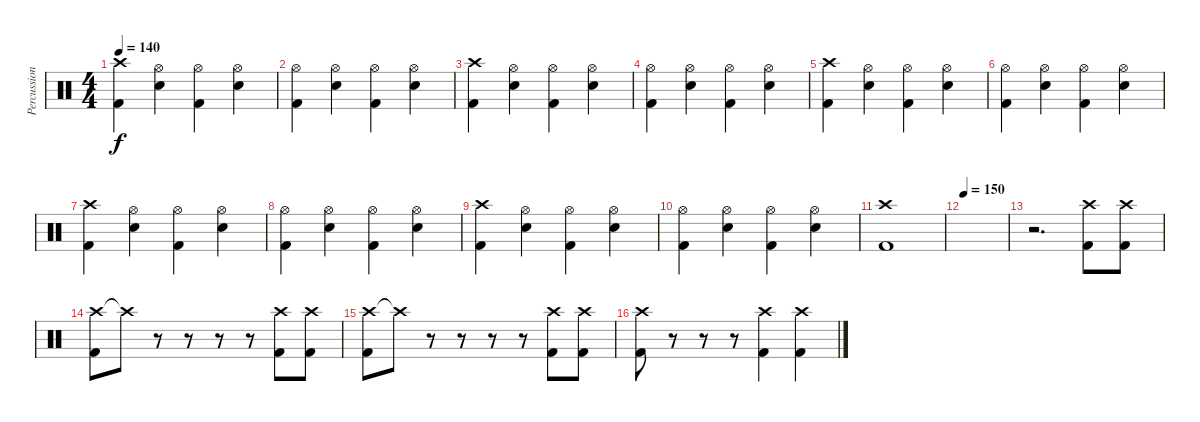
\track ("Percussion" "Percussion") {instrument percussion}
\staff {score}
\articulation defaults
\ts (4 4)
\tempo 140
\clef neutral
\ks c
("Crash high (hit)" "Kick (hit) 2").4{dy f} ("Hi-Hat (open)" "Snare (hit) 2").4 ("Hi-Hat (open)" "Kick (hit) 2").4 ("Hi-Hat (open)" "Snare (hit) 2").4 |
("Hi-Hat (open)" "Kick (hit) 2").4 ("Hi-Hat (open)" "Snare (hit) 2").4 ("Hi-Hat (open)" "Kick (hit) 2").4 ("Hi-Hat (open)" "Snare (hit) 2").4 |
("Crash high (hit)" "Kick (hit) 2").4 ("Hi-Hat (open)" "Snare (hit) 2").4 ("Hi-Hat (open)" "Kick (hit) 2").4 ("Hi-Hat (open)" "Snare (hit) 2").4 |
("Hi-Hat (open)" "Kick (hit) 2").4 ("Hi-Hat (open)" "Snare (hit) 2").4 ("Hi-Hat (open)" "Kick (hit) 2").4 ("Hi-Hat (open)" "Snare (hit) 2").4 |
("Crash high (hit)" "Kick (hit) 2").4 ("Hi-Hat (open)" "Snare (hit) 2").4 ("Hi-Hat (open)" "Kick (hit) 2").4 ("Hi-Hat (open)" "Snare (hit) 2").4 |
("Hi-Hat (open)" "Kick (hit) 2").4 ("Hi-Hat (open)" "Snare (hit) 2").4 ("Hi-Hat (open)" "Kick (hit) 2").4 ("Hi-Hat (open)" "Snare (hit) 2").4 |
("Crash high (hit)" "Kick (hit) 2").4 ("Hi-Hat (open)" "Snare (hit) 2").4 ("Hi-Hat (open)" "Kick (hit) 2").4 ("Hi-Hat (open)" "Snare (hit) 2").4 |
("Hi-Hat (open)" "Kick (hit) 2").4 ("Hi-Hat (open)" "Snare (hit) 2").4 ("Hi-Hat (open)" "Kick (hit) 2").4 ("Hi-Hat (open)" "Snare (hit) 2").4 |
("Crash high (hit)" "Kick (hit) 2").4 ("Hi-Hat (open)" "Snare (hit) 2").4 ("Hi-Hat (open)" "Kick (hit) 2").4 ("Hi-Hat (open)" "Snare (hit) 2").4 |
("Hi-Hat (open)" "Kick (hit) 2").4 ("Hi-Hat (open)" "Snare (hit) 2").4 ("Hi-Hat (open)" "Kick (hit) 2").4 ("Hi-Hat (open)" "Snare (hit) 2").4 |
("Crash high (hit)" "Kick (hit) 2").1 |
\tempo 150
|
r.2{d} ("Crash high (hit)" "Kick (hit) 2").8 ("Crash high (hit)" "Kick (hit) 2").8 |
("Crash high (hit)" "Kick (hit) 2").8 "Crash high (hit)"{t}.8 r.8 r.8 r.8 r.8 ("Crash high (hit)" "Kick (hit) 2").8 ("Crash high (hit)" "Kick (hit) 2").8 |
("Crash high (hit)" "Kick (hit) 2").8 "Crash high (hit)"{t}.8 r.8 r.8 r.8 r.8 ("Crash high (hit)" "Kick (hit) 2").8 ("Crash high (hit)" "Kick (hit) 2").8 |
("Crash high (hit)" "Kick (hit) 2").8 r.8 r.8 r.8 ("Crash high (hit)" "Kick (hit) 2").4 ("Crash high (hit)" "Kick (hit) 2").4
